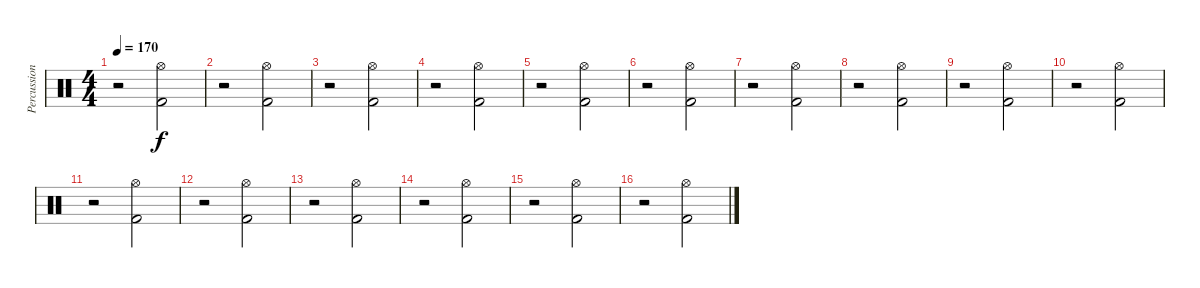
\track ("Percussion" "Percussion") {instrument percussion}
\staff {score}
\articulation defaults
\ts (4 4)
\tempo 170
\clef neutral
\ks c
r.2{dy f} ("Kick (hit) 2" "Hi-Hat (open)").2 |
r.2 ("Kick (hit) 2" "Hi-Hat (open)").2 |
r.2 ("Kick (hit) 2" "Hi-Hat (open)").2 |
r.2 ("Kick (hit) 2" "Hi-Hat (open)").2 |
r.2 ("Kick (hit) 2" "Hi-Hat (open)").2 |
r.2 ("Kick (hit) 2" "Hi-Hat (open)").2 |
r.2 ("Kick (hit) 2" "Hi-Hat (open)").2 |
r.2 ("Kick (hit) 2" "Hi-Hat (open)").2 |
r.2 ("Kick (hit) 2" "Hi-Hat (open)").2 |
r.2 ("Kick (hit) 2" "Hi-Hat (open)").2 |
r.2 ("Kick (hit) 2" "Hi-Hat (open)").2 |
r.2 ("Kick (hit) 2" "Hi-Hat (open)").2 |
r.2 ("Kick (hit) 2" "Hi-Hat (open)").2 |
r.2 ("Kick (hit) 2" "Hi-Hat (open)").2 |
r.2 ("Kick (hit) 2" "Hi-Hat (open)").2 |
r.2 ("Kick (hit) 2" "Hi-Hat (open)").2
